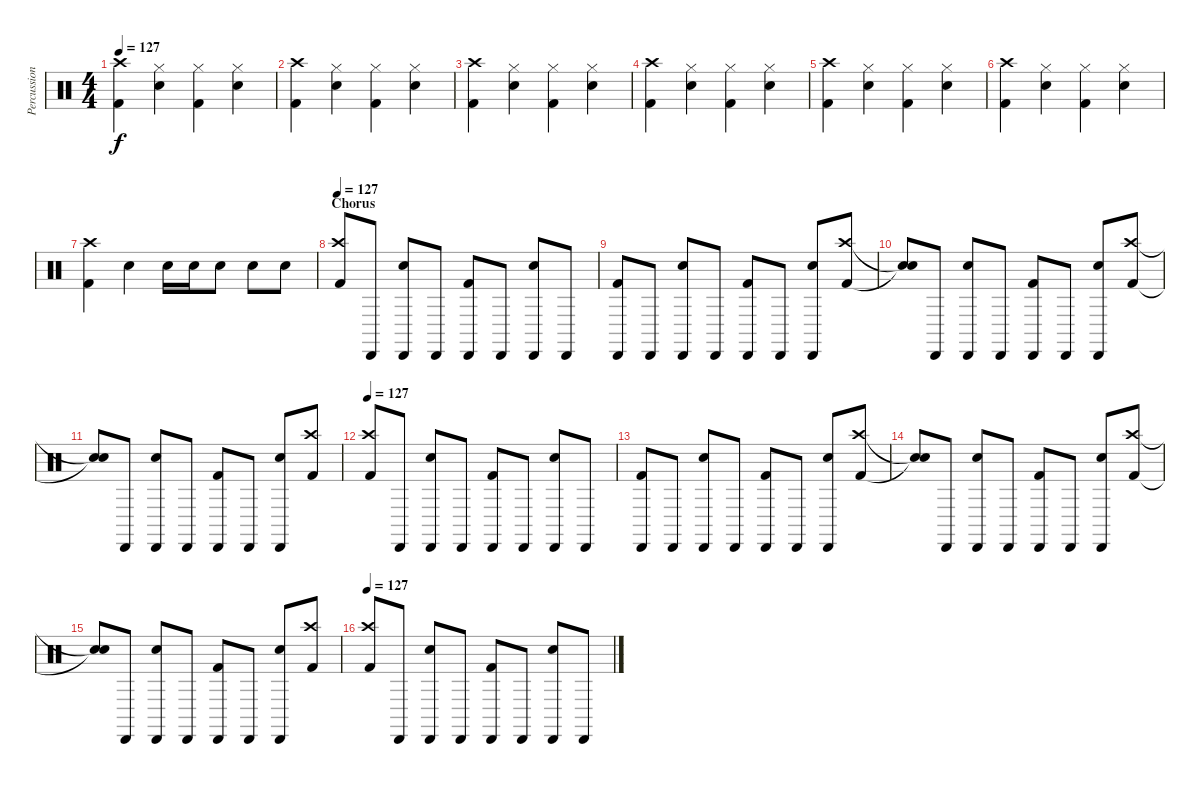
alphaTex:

\track ("Percussion" "Percussion") {instrument percussion}
\staff {score}
\articulation defaults
\ts (4 4)
\tempo 127
\clef neutral
\ks c
("Kick (hit) 2" "Crash high (hit)").4{dy f} ("Snare (hit) 2" "Hi-Hat (closed)").4 ("Kick (hit) 2" "Hi-Hat (closed)").4 ("Snare (hit) 2" "Hi-Hat (closed)").4 |
("Kick (hit) 2" "Crash high (hit)").4 ("Snare (hit) 2" "Hi-Hat (closed)").4 ("Kick (hit) 2" "Hi-Hat (closed)").4 ("Snare (hit) 2" "Hi-Hat (closed)").4 |
("Kick (hit) 2" "Crash high (hit)").4 ("Snare (hit) 2" "Hi-Hat (closed)").4 ("Kick (hit) 2" "Hi-Hat (closed)").4 ("Snare (hit) 2" "Hi-Hat (closed)").4 |
("Kick (hit) 2" "Crash high (hit)").4 ("Snare (hit) 2" "Hi-Hat (closed)").4 ("Kick (hit) 2" "Hi-Hat (closed)").4 ("Snare (hit) 2" "Hi-Hat (closed)").4 |
("Kick (hit) 2" "Crash high (hit)").4 ("Snare (hit) 2" "Hi-Hat (closed)").4 ("Kick (hit) 2" "Hi-Hat (closed)").4 ("Snare (hit) 2" "Hi-Hat (closed)").4 |
("Kick (hit) 2" "Crash high (hit)").4 ("Snare (hit) 2" "Hi-Hat (closed)").4 ("Kick (hit) 2" "Hi-Hat (closed)").4 ("Snare (hit) 2" "Hi-Hat (closed)").4 |
("Kick (hit) 2" "Crash high (hit)").4 "Snare (hit) 2".4 "Snare (hit) 2".16 "Snare (hit) 2".16 "Snare (hit) 2".8 "Snare (hit) 2".8 "Snare (hit) 2".8 |
\section ("" "Chorus")
\tempo 127
("Kick (hit) 2" "Crash high (hit)").8 "Cabasa (hit)".8 ("Snare (hit) 2" "Cabasa (hit)").8 "Cabasa (hit)".8 ("Kick (hit) 2" "Cabasa (hit)").8 "Cabasa (hit)".8 ("Snare (hit) 2" "Cabasa (hit)").8 "Cabasa (hit)".8 |
("Kick (hit) 2" "Cabasa (hit)").8 "Cabasa (hit)".8 ("Snare (hit) 2" "Cabasa (hit)").8 "Cabasa (hit)".8 ("Kick (hit) 2" "Cabasa (hit)").8 "Cabasa (hit)".8 ("Snare (hit) 2" "Cabasa (hit)").8 ("Kick (hit) 2" "Crash high (hit)").8 |
("Snare (hit)"{t} "Snare (hit)"{t}).8 "Cabasa (hit)".8 ("Snare (hit) 2" "Cabasa (hit)").8 "Cabasa (hit)".8 ("Kick (hit) 2" "Cabasa (hit)").8 "Cabasa (hit)".8 ("Snare (hit) 2" "Cabasa (hit)").8 ("Kick (hit) 2" "Crash high (hit)").8 |
("Snare (hit)"{t} "Snare (hit)"{t}).8 "Cabasa (hit)".8 ("Snare (hit) 2" "Cabasa (hit)").8 "Cabasa (hit)".8 ("Kick (hit) 2" "Cabasa (hit)").8 "Cabasa (hit)".8 ("Snare (hit) 2" "Cabasa (hit)").8 ("Kick (hit) 2" "Crash high (hit)").8 |
\tempo 127
("Kick (hit) 2" "Crash high (hit)").8 "Cabasa (hit)".8 ("Snare (hit) 2" "Cabasa (hit)").8 "Cabasa (hit)".8 ("Kick (hit) 2" "Cabasa (hit)").8 "Cabasa (hit)".8 ("Snare (hit) 2" "Cabasa (hit)").8 "Cabasa (hit)".8 |
("Kick (hit) 2" "Cabasa (hit)").8 "Cabasa (hit)".8 ("Snare (hit) 2" "Cabasa (hit)").8 "Cabasa (hit)".8 ("Kick (hit) 2" "Cabasa (hit)").8 "Cabasa (hit)".8 ("Snare (hit) 2" "Cabasa (hit)").8 ("Kick (hit) 2" "Crash high (hit)").8 |
("Snare (hit)"{t} "Snare (hit)"{t}).8 "Cabasa (hit)".8 ("Snare (hit) 2" "Cabasa (hit)").8 "Cabasa (hit)".8 ("Kick (hit) 2" "Cabasa (hit)").8 "Cabasa (hit)".8 ("Snare (hit) 2" "Cabasa (hit)").8 ("Kick (hit) 2" "Crash high (hit)").8 |
("Snare (hit)"{t} "Snare (hit)"{t}).8 "Cabasa (hit)".8 ("Snare (hit) 2" "Cabasa (hit)").8 "Cabasa (hit)".8 ("Kick (hit) 2" "Cabasa (hit)").8 "Cabasa (hit)".8 ("Snare (hit) 2" "Cabasa (hit)").8 ("Kick (hit) 2" "Crash high (hit)").8 |
\tempo 127
("Kick (hit) 2" "Crash high (hit)").8 "Cabasa (hit)".8 ("Snare (hit) 2" "Cabasa (hit)").8 "Cabasa (hit)".8 ("Kick (hit) 2" "Cabasa (hit)").8 "Cabasa (hit)".8 ("Snare (hit) 2" "Cabasa (hit)").8 "Cabasa (hit)".8
